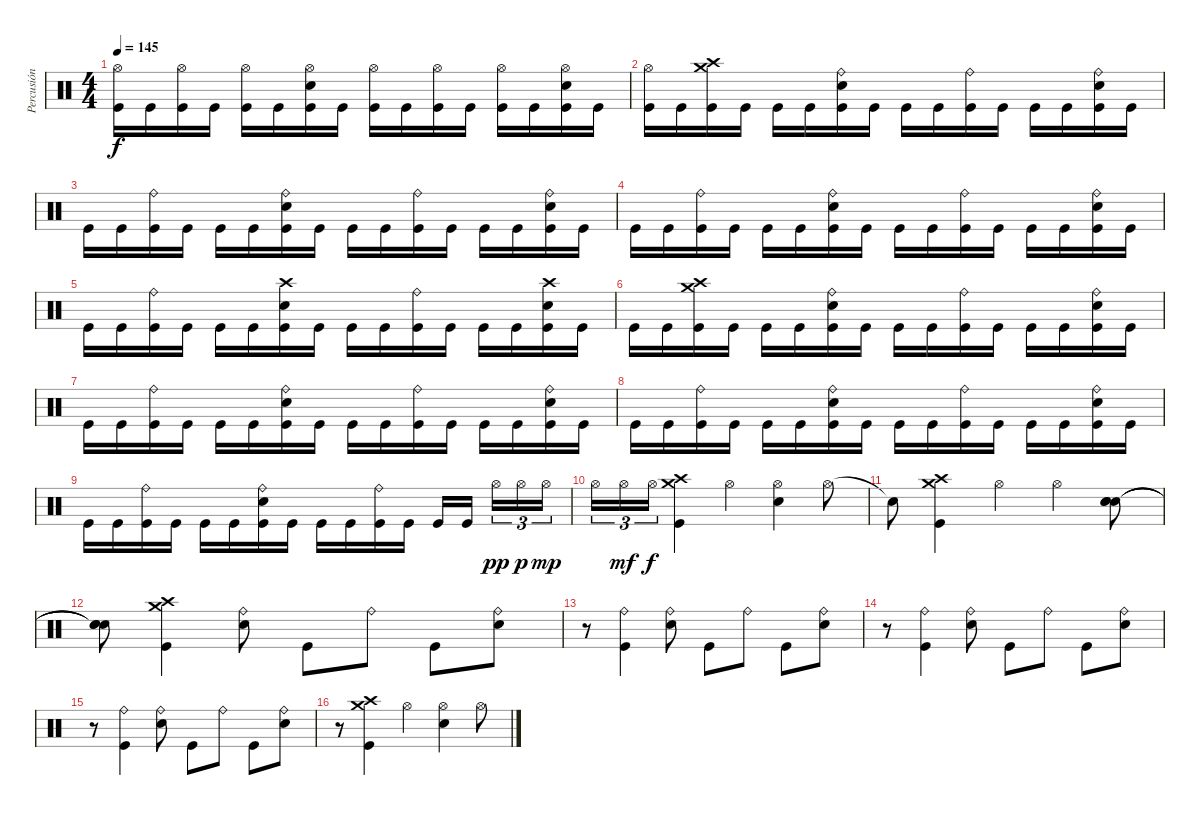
\track ("Percusión" "Percusión") {instrument percussion}
\staff {score}
\articulation defaults
\ts (4 4)
\tempo 145
\clef neutral
\ks c
("Hi-Hat (open)" "Kick (hit)").16{dy f} "Kick (hit)".16 ("Hi-Hat (open)" "Kick (hit)").16 "Kick (hit)".16 ("Hi-Hat (open)" "Kick (hit)").16 "Kick (hit)".16 ("Hi-Hat (open)" "Snare (hit) 2" "Kick (hit)").16 "Kick (hit)".16 ("Hi-Hat (open)" "Kick (hit)").16 "Kick (hit)".16 ("Hi-Hat (open)" "Kick (hit)").16 "Kick (hit)".16 ("Hi-Hat (open)" "Kick (hit)").16 "Kick (hit)".16 ("Hi-Hat (open)" "Snare (hit) 2" "Kick (hit)").16 "Kick (hit)".16 |
("Hi-Hat (open)" "Kick (hit)").16 "Kick (hit)".16 ("Crash medium (hit)" "Crash high (hit)" "Kick (hit)").16 "Kick (hit)".16 "Kick (hit)".16 "Kick (hit)".16 ("Ride (bell)" "Snare (hit) 2" "Kick (hit)").16 "Kick (hit)".16 "Kick (hit)".16 "Kick (hit)".16 ("Ride (bell)" "Kick (hit)").16 "Kick (hit)".16 "Kick (hit)".16 "Kick (hit)".16 ("Ride (bell)" "Snare (hit) 2" "Kick (hit)").16 "Kick (hit)".16 |
"Kick (hit)".16 "Kick (hit)".16 ("Ride (bell)" "Kick (hit)").16 "Kick (hit)".16 "Kick (hit)".16 "Kick (hit)".16 ("Ride (bell)" "Snare (hit) 2" "Kick (hit)").16 "Kick (hit)".16 "Kick (hit)".16 "Kick (hit)".16 ("Ride (bell)" "Kick (hit)").16 "Kick (hit)".16 "Kick (hit)".16 "Kick (hit)".16 ("Ride (bell)" "Snare (hit) 2" "Kick (hit)").16 "Kick (hit)".16 |
"Kick (hit)".16 "Kick (hit)".16 ("Ride (bell)" "Kick (hit)").16 "Kick (hit)".16 "Kick (hit)".16 "Kick (hit)".16 ("Ride (bell)" "Snare (hit) 2" "Kick (hit)").16 "Kick (hit)".16 "Kick (hit)".16 "Kick (hit)".16 ("Ride (bell)" "Kick (hit)").16 "Kick (hit)".16 "Kick (hit)".16 "Kick (hit)".16 ("Ride (bell)" "Snare (hit) 2" "Kick (hit)").16 "Kick (hit)".16 |
"Kick (hit)".16 "Kick (hit)".16 ("Ride (bell)" "Kick (hit)").16 "Kick (hit)".16 "Kick (hit)".16 "Kick (hit)".16 ("Crash high (hit)" "Snare (hit) 2" "Kick (hit)").16 "Kick (hit)".16 "Kick (hit)".16 "Kick (hit)".16 ("Ride (bell)" "Kick (hit)").16 "Kick (hit)".16 "Kick (hit)".16 "Kick (hit)".16 ("Crash high (hit)" "Snare (hit) 2" "Kick (hit)").16 "Kick (hit)".16 |
"Kick (hit)".16 "Kick (hit)".16 ("Crash medium (hit)" "Crash high (hit)" "Kick (hit)").16 "Kick (hit)".16 "Kick (hit)".16 "Kick (hit)".16 ("Ride (bell)" "Snare (hit) 2" "Kick (hit)").16 "Kick (hit)".16 "Kick (hit)".16 "Kick (hit)".16 ("Ride (bell)" "Kick (hit)").16 "Kick (hit)".16 "Kick (hit)".16 "Kick (hit)".16 ("Ride (bell)" "Snare (hit) 2" "Kick (hit)").16 "Kick (hit)".16 |
"Kick (hit)".16 "Kick (hit)".16 ("Ride (bell)" "Kick (hit)").16 "Kick (hit)".16 "Kick (hit)".16 "Kick (hit)".16 ("Ride (bell)" "Snare (hit) 2" "Kick (hit)").16 "Kick (hit)".16 "Kick (hit)".16 "Kick (hit)".16 ("Ride (bell)" "Kick (hit)").16 "Kick (hit)".16 "Kick (hit)".16 "Kick (hit)".16 ("Ride (bell)" "Snare (hit) 2" "Kick (hit)").16 "Kick (hit)".16 |
"Kick (hit)".16 "Kick (hit)".16 ("Ride (bell)" "Kick (hit)").16 "Kick (hit)".16 "Kick (hit)".16 "Kick (hit)".16 ("Ride (bell)" "Snare (hit) 2" "Kick (hit)").16 "Kick (hit)".16 "Kick (hit)".16 "Kick (hit)".16 ("Ride (bell)" "Kick (hit)").16 "Kick (hit)".16 "Kick (hit)".16 "Kick (hit)".16 ("Ride (bell)" "Snare (hit) 2" "Kick (hit)").16 "Kick (hit)".16 |
"Kick (hit)".16 "Kick (hit)".16 ("Ride (bell)" "Kick (hit)").16 "Kick (hit)".16 "Kick (hit)".16 "Kick (hit)".16 ("Ride (bell)" "Snare (hit) 2" "Kick (hit)").16 "Kick (hit)".16 "Kick (hit)".16 "Kick (hit)".16 ("Ride (bell)" "Kick (hit)").16 "Kick (hit)".16 "Kick (hit)".16 "Kick (hit)".16 "Hi-Hat (open)".16{tu (3 2) dy pp} "Hi-Hat (open)".16{tu (3 2) dy p} "Hi-Hat (open)".16{tu (3 2) dy mp} |
"Hi-Hat (open)".16{tu (3 2)} "Hi-Hat (open)".16{tu (3 2) dy mf} "Hi-Hat (open)".16{tu (3 2) dy f} ("Crash high (hit)" "Crash medium (hit)" "Kick (hit)").4 "Hi-Hat (open)".4 ("Hi-Hat (open)" "Snare (hit) 2").4 "Hi-Hat (open)".8 |
"Snare (hit)"{t}.8 ("Crash high (hit)" "Crash medium (hit)" "Kick (hit)").4 "Hi-Hat (open)".4 "Hi-Hat (open)".4 ("Snare (hit) 2" "Snare (hit) 2" "Snare (hit) 2").8 |
("Snare (hit)"{t} "Snare (hit)"{t} "Snare (hit)"{t}).8 ("Crash medium (hit)" "Crash high (hit)" "Kick (hit)").4 ("Ride (bell)" "Snare (hit) 2").8 "Kick (hit)".8 "Ride (bell)".8 "Kick (hit)".8 ("Ride (bell)" "Snare (hit) 2").8 |
r.8 ("Ride (bell)" "Kick (hit)").4 ("Ride (bell)" "Snare (hit) 2").8 "Kick (hit)".8 "Ride (bell)".8 "Kick (hit)".8 ("Ride (bell)" "Snare (hit) 2").8 |
r.8 ("Ride (bell)" "Kick (hit)").4 ("Ride (bell)" "Snare (hit) 2").8 "Kick (hit)".8 "Ride (bell)".8 "Kick (hit)".8 ("Ride (bell)" "Snare (hit) 2").8 |
r.8 ("Ride (bell)" "Kick (hit)").4 ("Ride (bell)" "Snare (hit) 2").8 "Kick (hit)".8 "Ride (bell)".8 "Kick (hit)".8 ("Ride (bell)" "Snare (hit) 2").8 |
r.8 ("Crash high (hit)" "Crash medium (hit)" "Kick (hit)").4 "Hi-Hat (open)".4 ("Hi-Hat (open)" "Snare (hit) 2").4 "Hi-Hat (open)".8
